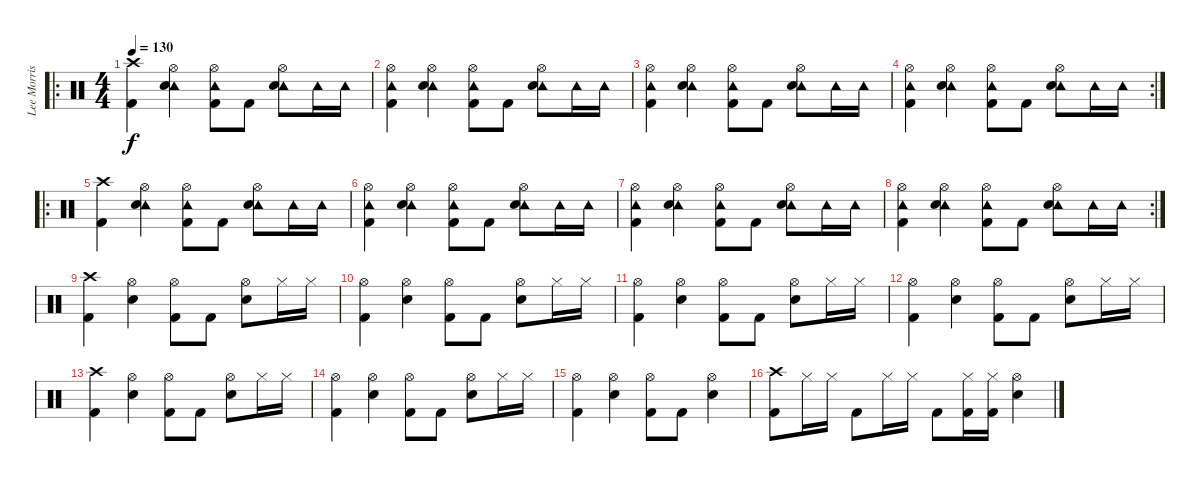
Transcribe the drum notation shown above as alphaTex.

\track ("Lee Morris" "Lee Morris") {instrument percussion}
\staff {score}
\articulation defaults
\ro
\ts (4 4)
\tempo 130
\clef neutral
\ks c
("Crash high (hit)" "Kick (hit) 2").4{dy f} ("Tambourine (hit)" "Hi-Hat (open)" "Electric Snare (hit)").4 ("Tambourine (hit)" "Hi-Hat (open)" "Kick (hit) 2").8 "Kick (hit) 2".8 ("Tambourine (hit)" "Hi-Hat (open)" "Electric Snare (hit)").8 "Tambourine (hit)".16 "Tambourine (hit)".16 |
("Tambourine (hit)" "Hi-Hat (open)" "Kick (hit) 2").4 ("Tambourine (hit)" "Hi-Hat (open)" "Electric Snare (hit)").4 ("Tambourine (hit)" "Hi-Hat (open)" "Kick (hit) 2").8 "Kick (hit) 2".8 ("Tambourine (hit)" "Hi-Hat (open)" "Electric Snare (hit)").8 "Tambourine (hit)".16 "Tambourine (hit)".16 |
("Tambourine (hit)" "Hi-Hat (open)" "Kick (hit) 2").4 ("Tambourine (hit)" "Hi-Hat (open)" "Electric Snare (hit)").4 ("Tambourine (hit)" "Hi-Hat (open)" "Kick (hit) 2").8 "Kick (hit) 2".8 ("Tambourine (hit)" "Hi-Hat (open)" "Electric Snare (hit)").8 "Tambourine (hit)".16 "Tambourine (hit)".16 |
\rc 2
("Tambourine (hit)" "Hi-Hat (open)" "Kick (hit) 2").4 ("Tambourine (hit)" "Hi-Hat (open)" "Electric Snare (hit)").4 ("Tambourine (hit)" "Hi-Hat (open)" "Kick (hit) 2").8 "Kick (hit) 2".8 ("Tambourine (hit)" "Hi-Hat (open)" "Electric Snare (hit)").8 "Tambourine (hit)".16 "Tambourine (hit)".16 |
\ro
("Crash high (hit)" "Kick (hit) 2").4 ("Tambourine (hit)" "Hi-Hat (open)" "Electric Snare (hit)").4 ("Tambourine (hit)" "Hi-Hat (open)" "Kick (hit) 2").8 "Kick (hit) 2".8 ("Tambourine (hit)" "Hi-Hat (open)" "Electric Snare (hit)").8 "Tambourine (hit)".16 "Tambourine (hit)".16 |
("Tambourine (hit)" "Hi-Hat (open)" "Kick (hit) 2").4 ("Tambourine (hit)" "Hi-Hat (open)" "Electric Snare (hit)").4 ("Tambourine (hit)" "Hi-Hat (open)" "Kick (hit) 2").8 "Kick (hit) 2".8 ("Tambourine (hit)" "Hi-Hat (open)" "Electric Snare (hit)").8 "Tambourine (hit)".16 "Tambourine (hit)".16 |
("Tambourine (hit)" "Hi-Hat (open)" "Kick (hit) 2").4 ("Tambourine (hit)" "Hi-Hat (open)" "Electric Snare (hit)").4 ("Tambourine (hit)" "Hi-Hat (open)" "Kick (hit) 2").8 "Kick (hit) 2".8 ("Tambourine (hit)" "Hi-Hat (open)" "Electric Snare (hit)").8 "Tambourine (hit)".16 "Tambourine (hit)".16 |
\rc 2
("Tambourine (hit)" "Hi-Hat (open)" "Kick (hit) 2").4 ("Tambourine (hit)" "Hi-Hat (open)" "Electric Snare (hit)").4 ("Tambourine (hit)" "Hi-Hat (open)" "Kick (hit) 2").8 "Kick (hit) 2".8 ("Tambourine (hit)" "Hi-Hat (open)" "Electric Snare (hit)").8 "Tambourine (hit)".16 "Tambourine (hit)".16 |
("Crash high (hit)" "Kick (hit) 2").4 ("Hi-Hat (open)" "Electric Snare (hit)").4 ("Hi-Hat (open)" "Kick (hit) 2").8 "Kick (hit) 2".8 ("Hi-Hat (open)" "Electric Snare (hit)").8 "Hi-Hat (closed)".16 "Hi-Hat (closed)".16 |
("Hi-Hat (open)" "Kick (hit) 2").4 ("Hi-Hat (open)" "Electric Snare (hit)").4 ("Hi-Hat (open)" "Kick (hit) 2").8 "Kick (hit) 2".8 ("Hi-Hat (open)" "Electric Snare (hit)").8 "Hi-Hat (closed)".16 "Hi-Hat (closed)".16 |
("Hi-Hat (open)" "Kick (hit) 2").4 ("Hi-Hat (open)" "Electric Snare (hit)").4 ("Hi-Hat (open)" "Kick (hit) 2").8 "Kick (hit) 2".8 ("Hi-Hat (open)" "Electric Snare (hit)").8 "Hi-Hat (closed)".16 "Hi-Hat (closed)".16 |
("Hi-Hat (open)" "Kick (hit) 2").4 ("Hi-Hat (open)" "Electric Snare (hit)").4 ("Hi-Hat (open)" "Kick (hit) 2").8 "Kick (hit) 2".8 ("Hi-Hat (open)" "Electric Snare (hit)").8 "Hi-Hat (closed)".16 "Hi-Hat (closed)".16 |
("Crash high (hit)" "Kick (hit) 2").4 ("Hi-Hat (open)" "Electric Snare (hit)").4 ("Hi-Hat (open)" "Kick (hit) 2").8 "Kick (hit) 2".8 ("Hi-Hat (open)" "Electric Snare (hit)").8 "Hi-Hat (closed)".16 "Hi-Hat (closed)".16 |
("Hi-Hat (open)" "Kick (hit) 2").4 ("Hi-Hat (open)" "Electric Snare (hit)").4 ("Hi-Hat (open)" "Kick (hit) 2").8 "Kick (hit) 2".8 ("Hi-Hat (open)" "Electric Snare (hit)").8 "Hi-Hat (closed)".16 "Hi-Hat (closed)".16 |
("Hi-Hat (open)" "Kick (hit) 2").4 ("Hi-Hat (open)" "Electric Snare (hit)").4 ("Hi-Hat (open)" "Kick (hit) 2").8 "Kick (hit) 2".8 ("Hi-Hat (open)" "Electric Snare (hit)").4 |
("Crash high (hit)" "Kick (hit) 2").8 "Hi-Hat (closed)".16 "Hi-Hat (closed)".16 "Kick (hit) 2".8 "Hi-Hat (closed)".16 "Hi-Hat (closed)".16 "Kick (hit) 2".8 ("Hi-Hat (closed)" "Kick (hit) 2").16 ("Hi-Hat (closed)" "Kick (hit) 2").16 ("Electric Snare (hit)" "Hi-Hat (open)").4
